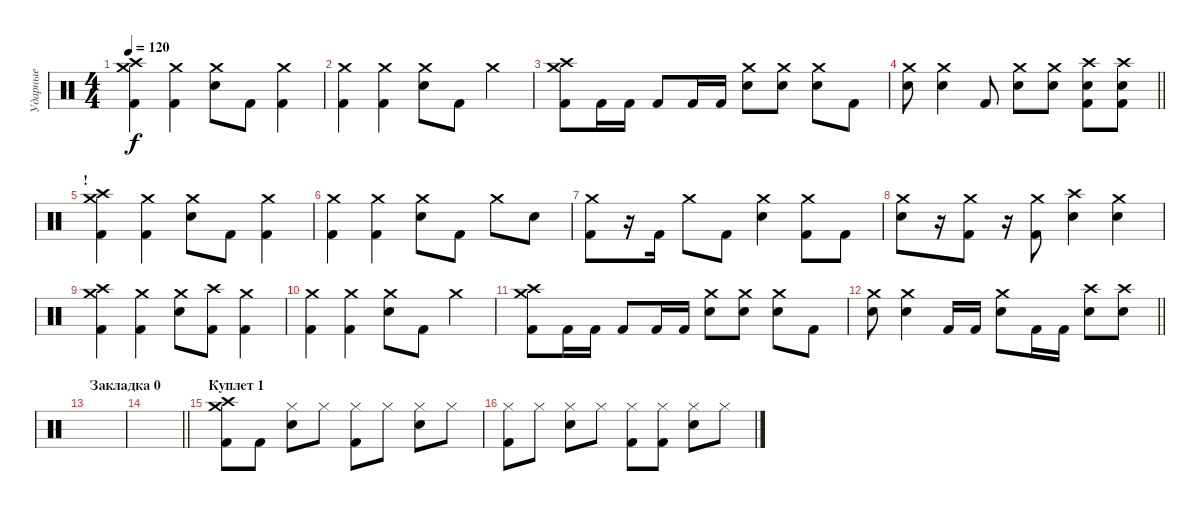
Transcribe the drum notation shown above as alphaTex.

\track ("Ударные" "Ударные") {instrument percussion}
\staff {score}
\articulation defaults
\ts (4 4)
\tempo 120
\clef neutral
\ks c
("Crash medium (hit)" "Crash high (hit)" "Kick (hit) 2").4{dy f} ("Crash medium (hit)" "Kick (hit) 2").4 ("Crash medium (hit)" "Snare (hit) 2").8 "Kick (hit) 2".8 ("Crash medium (hit)" "Kick (hit) 2").4 |
("Crash medium (hit)" "Kick (hit) 2").4 ("Crash medium (hit)" "Kick (hit) 2").4 ("Crash medium (hit)" "Snare (hit) 2").8 "Kick (hit) 2".8 "Crash medium (hit)".4 |
("Crash medium (hit)" "Crash high (hit)" "Kick (hit) 2").8 "Kick (hit) 2".16 "Kick (hit) 2".16 "Kick (hit) 2".8 "Kick (hit) 2".16 "Kick (hit) 2".16 ("Crash medium (hit)" "Snare (hit) 2").8 ("Crash medium (hit)" "Snare (hit) 2").8 ("Crash medium (hit)" "Snare (hit) 2").8 "Kick (hit) 2".8 |
\barLineRight lightlight
("Crash medium (hit)" "Snare (hit) 2").8 ("Crash medium (hit)" "Snare (hit) 2").4 "Kick (hit) 2".8 ("Crash medium (hit)" "Snare (hit) 2").8 ("Crash medium (hit)" "Snare (hit) 2").8 ("Crash high (hit)" "Snare (hit) 2" "Kick (hit) 2").8 ("Crash high (hit)" "Snare (hit) 2" "Kick (hit) 2").8 |
\section ("" "!")
("Crash medium (hit)" "Crash high (hit)" "Kick (hit) 2").4 ("Crash medium (hit)" "Kick (hit) 2").4 ("Crash medium (hit)" "Snare (hit) 2").8 "Kick (hit) 2".8 ("Crash medium (hit)" "Kick (hit) 2").4 |
("Crash medium (hit)" "Kick (hit) 2").4 ("Crash medium (hit)" "Kick (hit) 2").4 ("Crash medium (hit)" "Snare (hit) 2").8 "Kick (hit) 2".8 "Crash medium (hit)".8 "Snare (hit) 2".8 |
("Crash medium (hit)" "Kick (hit) 2").8 r.16 "Kick (hit) 2".16 "Crash medium (hit)".8 "Kick (hit) 2".8 ("Crash medium (hit)" "Snare (hit) 2").4 ("Crash medium (hit)" "Kick (hit) 2").8 "Kick (hit) 2".8 |
("Crash medium (hit)" "Snare (hit) 2").8 r.16 ("Crash medium (hit)" "Kick (hit) 2").8 r.16 ("Crash medium (hit)" "Kick (hit) 2").8 ("Crash high (hit)" "Snare (hit) 2").4 ("Crash medium (hit)" "Snare (hit) 2").4 |
("Crash medium (hit)" "Crash high (hit)" "Kick (hit) 2").4 ("Crash medium (hit)" "Kick (hit) 2").4 ("Crash medium (hit)" "Snare (hit) 2").8 ("Crash high (hit)" "Kick (hit) 2").8 ("Crash medium (hit)" "Kick (hit) 2").4 |
("Crash medium (hit)" "Kick (hit) 2").4 ("Crash medium (hit)" "Kick (hit) 2").4 ("Crash medium (hit)" "Snare (hit) 2").8 "Kick (hit) 2".8 "Crash medium (hit)".4 |
("Crash medium (hit)" "Crash high (hit)" "Kick (hit) 2").8 "Kick (hit) 2".16 "Kick (hit) 2".16 "Kick (hit) 2".8 "Kick (hit) 2".16 "Kick (hit) 2".16 ("Crash medium (hit)" "Snare (hit) 2").8 ("Crash medium (hit)" "Snare (hit) 2").8 ("Crash medium (hit)" "Snare (hit) 2").8 "Kick (hit) 2".8 |
\barLineRight lightlight
("Crash medium (hit)" "Snare (hit) 2").8 ("Crash medium (hit)" "Snare (hit) 2").4 "Kick (hit) 2".16 "Kick (hit) 2".16 ("Crash medium (hit)" "Snare (hit) 2").8 "Kick (hit) 2".16 "Kick (hit) 2".16 ("Crash high (hit)" "Snare (hit) 2").8 ("Crash high (hit)" "Snare (hit) 2").8 |
\section ("" "Закладка 0")
|
\barLineRight lightlight
|
\section ("" "Куплет 1")
("Crash high (hit)" "Crash medium (hit)" "Kick (hit) 2").8 "Kick (hit) 2".8 ("Hi-Hat (closed)" "Snare (hit) 2").8 "Hi-Hat (closed)".8 ("Hi-Hat (closed)" "Kick (hit) 2").8 "Hi-Hat (closed)".8 ("Hi-Hat (closed)" "Snare (hit) 2").8 "Hi-Hat (closed)".8 |
("Hi-Hat (closed)" "Kick (hit) 2").8 "Hi-Hat (closed)".8 ("Hi-Hat (closed)" "Snare (hit) 2").8 "Hi-Hat (closed)".8 ("Hi-Hat (closed)" "Kick (hit) 2").8 ("Hi-Hat (closed)" "Kick (hit) 2").8 ("Hi-Hat (closed)" "Snare (hit) 2").8 "Hi-Hat (closed)".8
